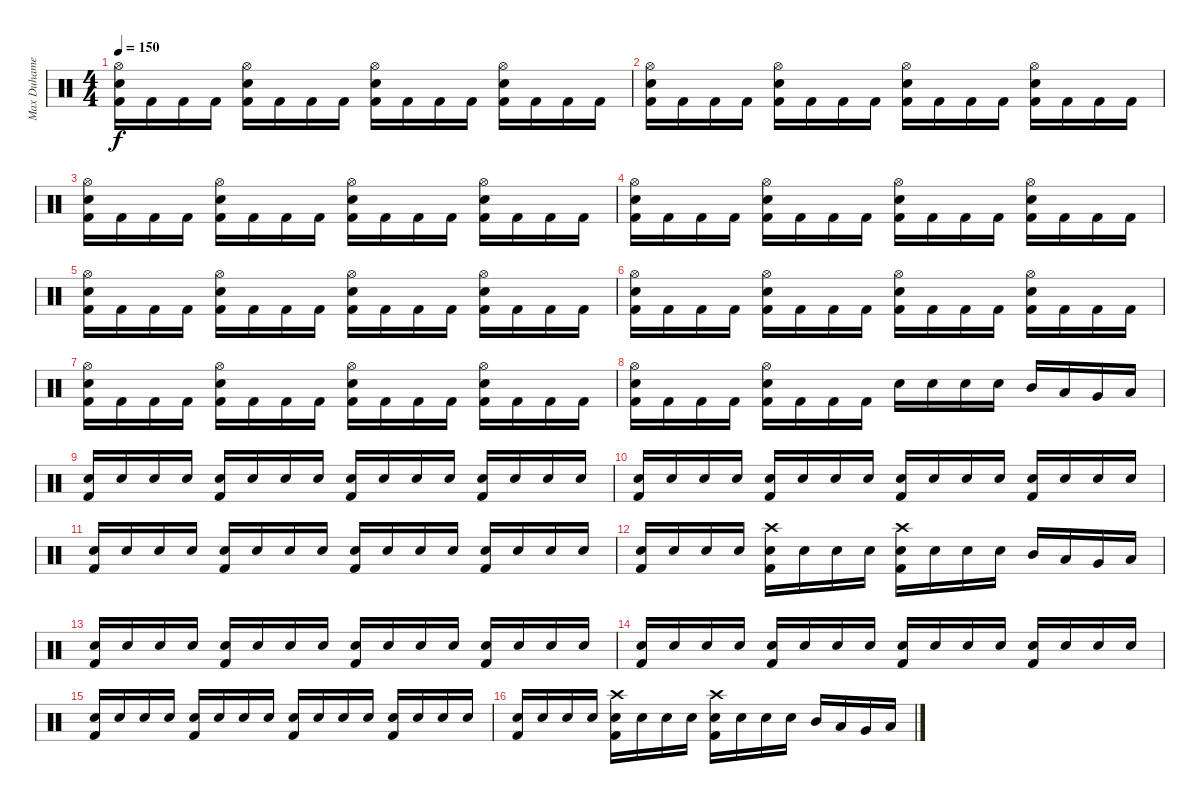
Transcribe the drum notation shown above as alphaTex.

\track ("Max Duhamel (Drums)" "Max Duhame") {instrument percussion}
\staff {score}
\articulation defaults
\ts (4 4)
\tempo 150
\clef neutral
\ks c
("Hi-Hat (open)" "Electric Snare (hit)" "Kick (hit) 2").16{dy f} "Kick (hit) 2".16 "Kick (hit) 2".16 "Kick (hit) 2".16 ("Hi-Hat (open)" "Electric Snare (hit)" "Kick (hit) 2").16 "Kick (hit) 2".16 "Kick (hit) 2".16 "Kick (hit) 2".16 ("Hi-Hat (open)" "Electric Snare (hit)" "Kick (hit) 2").16 "Kick (hit) 2".16 "Kick (hit) 2".16 "Kick (hit) 2".16 ("Hi-Hat (open)" "Electric Snare (hit)" "Kick (hit) 2").16 "Kick (hit) 2".16 "Kick (hit) 2".16 "Kick (hit) 2".16 |
("Hi-Hat (open)" "Electric Snare (hit)" "Kick (hit) 2").16 "Kick (hit) 2".16 "Kick (hit) 2".16 "Kick (hit) 2".16 ("Hi-Hat (open)" "Electric Snare (hit)" "Kick (hit) 2").16 "Kick (hit) 2".16 "Kick (hit) 2".16 "Kick (hit) 2".16 ("Hi-Hat (open)" "Electric Snare (hit)" "Kick (hit) 2").16 "Kick (hit) 2".16 "Kick (hit) 2".16 "Kick (hit) 2".16 ("Hi-Hat (open)" "Electric Snare (hit)" "Kick (hit) 2").16 "Kick (hit) 2".16 "Kick (hit) 2".16 "Kick (hit) 2".16 |
("Hi-Hat (open)" "Electric Snare (hit)" "Kick (hit) 2").16 "Kick (hit) 2".16 "Kick (hit) 2".16 "Kick (hit) 2".16 ("Hi-Hat (open)" "Electric Snare (hit)" "Kick (hit) 2").16 "Kick (hit) 2".16 "Kick (hit) 2".16 "Kick (hit) 2".16 ("Hi-Hat (open)" "Electric Snare (hit)" "Kick (hit) 2").16 "Kick (hit) 2".16 "Kick (hit) 2".16 "Kick (hit) 2".16 ("Hi-Hat (open)" "Electric Snare (hit)" "Kick (hit) 2").16 "Kick (hit) 2".16 "Kick (hit) 2".16 "Kick (hit) 2".16 |
("Hi-Hat (open)" "Electric Snare (hit)" "Kick (hit) 2").16 "Kick (hit) 2".16 "Kick (hit) 2".16 "Kick (hit) 2".16 ("Hi-Hat (open)" "Electric Snare (hit)" "Kick (hit) 2").16 "Kick (hit) 2".16 "Kick (hit) 2".16 "Kick (hit) 2".16 ("Hi-Hat (open)" "Electric Snare (hit)" "Kick (hit) 2").16 "Kick (hit) 2".16 "Kick (hit) 2".16 "Kick (hit) 2".16 ("Hi-Hat (open)" "Electric Snare (hit)" "Kick (hit) 2").16 "Kick (hit) 2".16 "Kick (hit) 2".16 "Kick (hit) 2".16 |
("Hi-Hat (open)" "Electric Snare (hit)" "Kick (hit) 2").16 "Kick (hit) 2".16 "Kick (hit) 2".16 "Kick (hit) 2".16 ("Hi-Hat (open)" "Electric Snare (hit)" "Kick (hit) 2").16 "Kick (hit) 2".16 "Kick (hit) 2".16 "Kick (hit) 2".16 ("Hi-Hat (open)" "Electric Snare (hit)" "Kick (hit) 2").16 "Kick (hit) 2".16 "Kick (hit) 2".16 "Kick (hit) 2".16 ("Hi-Hat (open)" "Electric Snare (hit)" "Kick (hit) 2").16 "Kick (hit) 2".16 "Kick (hit) 2".16 "Kick (hit) 2".16 |
("Hi-Hat (open)" "Electric Snare (hit)" "Kick (hit) 2").16 "Kick (hit) 2".16 "Kick (hit) 2".16 "Kick (hit) 2".16 ("Hi-Hat (open)" "Electric Snare (hit)" "Kick (hit) 2").16 "Kick (hit) 2".16 "Kick (hit) 2".16 "Kick (hit) 2".16 ("Hi-Hat (open)" "Electric Snare (hit)" "Kick (hit) 2").16 "Kick (hit) 2".16 "Kick (hit) 2".16 "Kick (hit) 2".16 ("Hi-Hat (open)" "Electric Snare (hit)" "Kick (hit) 2").16 "Kick (hit) 2".16 "Kick (hit) 2".16 "Kick (hit) 2".16 |
("Hi-Hat (open)" "Electric Snare (hit)" "Kick (hit) 2").16 "Kick (hit) 2".16 "Kick (hit) 2".16 "Kick (hit) 2".16 ("Hi-Hat (open)" "Electric Snare (hit)" "Kick (hit) 2").16 "Kick (hit) 2".16 "Kick (hit) 2".16 "Kick (hit) 2".16 ("Hi-Hat (open)" "Electric Snare (hit)" "Kick (hit) 2").16 "Kick (hit) 2".16 "Kick (hit) 2".16 "Kick (hit) 2".16 ("Hi-Hat (open)" "Electric Snare (hit)" "Kick (hit) 2").16 "Kick (hit) 2".16 "Kick (hit) 2".16 "Kick (hit) 2".16 |
("Hi-Hat (open)" "Electric Snare (hit)" "Kick (hit) 2").16 "Kick (hit) 2".16 "Kick (hit) 2".16 "Kick (hit) 2".16 ("Hi-Hat (open)" "Electric Snare (hit)" "Kick (hit) 2").16 "Kick (hit) 2".16 "Kick (hit) 2".16 "Kick (hit) 2".16 "Electric Snare (hit)".16 "Electric Snare (hit)".16 "Electric Snare (hit)".16 "Electric Snare (hit)".16 "Mid Tom (hit)".16 "Low Tom (hit)".16 "Very Low Tom (hit)".16 "Low Floor Tom (hit)".16 |
("Electric Snare (hit)" "Kick (hit) 2").16 "Electric Snare (hit)".16 "Electric Snare (hit)".16 "Electric Snare (hit)".16 ("Electric Snare (hit)" "Kick (hit) 2").16 "Electric Snare (hit)".16 "Electric Snare (hit)".16 "Electric Snare (hit)".16 ("Electric Snare (hit)" "Kick (hit) 2").16 "Electric Snare (hit)".16 "Electric Snare (hit)".16 "Electric Snare (hit)".16 ("Electric Snare (hit)" "Kick (hit) 2").16 "Electric Snare (hit)".16 "Electric Snare (hit)".16 "Electric Snare (hit)".16 |
("Electric Snare (hit)" "Kick (hit) 2").16 "Electric Snare (hit)".16 "Electric Snare (hit)".16 "Electric Snare (hit)".16 ("Electric Snare (hit)" "Kick (hit) 2").16 "Electric Snare (hit)".16 "Electric Snare (hit)".16 "Electric Snare (hit)".16 ("Electric Snare (hit)" "Kick (hit) 2").16 "Electric Snare (hit)".16 "Electric Snare (hit)".16 "Electric Snare (hit)".16 ("Electric Snare (hit)" "Kick (hit) 2").16 "Electric Snare (hit)".16 "Electric Snare (hit)".16 "Electric Snare (hit)".16 |
("Electric Snare (hit)" "Kick (hit) 2").16 "Electric Snare (hit)".16 "Electric Snare (hit)".16 "Electric Snare (hit)".16 ("Electric Snare (hit)" "Kick (hit) 2").16 "Electric Snare (hit)".16 "Electric Snare (hit)".16 "Electric Snare (hit)".16 ("Electric Snare (hit)" "Kick (hit) 2").16 "Electric Snare (hit)".16 "Electric Snare (hit)".16 "Electric Snare (hit)".16 ("Electric Snare (hit)" "Kick (hit) 2").16 "Electric Snare (hit)".16 "Electric Snare (hit)".16 "Electric Snare (hit)".16 |
("Electric Snare (hit)" "Kick (hit) 2").16 "Electric Snare (hit)".16 "Electric Snare (hit)".16 "Electric Snare (hit)".16 ("Crash high (hit)" "Electric Snare (hit)" "Kick (hit) 2").16 "Electric Snare (hit)".16 "Electric Snare (hit)".16 "Electric Snare (hit)".16 ("Crash high (hit)" "Electric Snare (hit)" "Kick (hit) 2").16 "Electric Snare (hit)".16 "Electric Snare (hit)".16 "Electric Snare (hit)".16 "Mid Tom (hit)".16 "Low Tom (hit)".16 "Very Low Tom (hit)".16 "Low Floor Tom (hit)".16 |
("Electric Snare (hit)" "Kick (hit) 2").16 "Electric Snare (hit)".16 "Electric Snare (hit)".16 "Electric Snare (hit)".16 ("Electric Snare (hit)" "Kick (hit) 2").16 "Electric Snare (hit)".16 "Electric Snare (hit)".16 "Electric Snare (hit)".16 ("Electric Snare (hit)" "Kick (hit) 2").16 "Electric Snare (hit)".16 "Electric Snare (hit)".16 "Electric Snare (hit)".16 ("Electric Snare (hit)" "Kick (hit) 2").16 "Electric Snare (hit)".16 "Electric Snare (hit)".16 "Electric Snare (hit)".16 |
("Electric Snare (hit)" "Kick (hit) 2").16 "Electric Snare (hit)".16 "Electric Snare (hit)".16 "Electric Snare (hit)".16 ("Electric Snare (hit)" "Kick (hit) 2").16 "Electric Snare (hit)".16 "Electric Snare (hit)".16 "Electric Snare (hit)".16 ("Electric Snare (hit)" "Kick (hit) 2").16 "Electric Snare (hit)".16 "Electric Snare (hit)".16 "Electric Snare (hit)".16 ("Electric Snare (hit)" "Kick (hit) 2").16 "Electric Snare (hit)".16 "Electric Snare (hit)".16 "Electric Snare (hit)".16 |
("Electric Snare (hit)" "Kick (hit) 2").16 "Electric Snare (hit)".16 "Electric Snare (hit)".16 "Electric Snare (hit)".16 ("Electric Snare (hit)" "Kick (hit) 2").16 "Electric Snare (hit)".16 "Electric Snare (hit)".16 "Electric Snare (hit)".16 ("Electric Snare (hit)" "Kick (hit) 2").16 "Electric Snare (hit)".16 "Electric Snare (hit)".16 "Electric Snare (hit)".16 ("Electric Snare (hit)" "Kick (hit) 2").16 "Electric Snare (hit)".16 "Electric Snare (hit)".16 "Electric Snare (hit)".16 |
("Electric Snare (hit)" "Kick (hit) 2").16 "Electric Snare (hit)".16 "Electric Snare (hit)".16 "Electric Snare (hit)".16 ("Crash high (hit)" "Electric Snare (hit)" "Kick (hit) 2").16 "Electric Snare (hit)".16 "Electric Snare (hit)".16 "Electric Snare (hit)".16 ("Crash high (hit)" "Electric Snare (hit)" "Kick (hit) 2").16 "Electric Snare (hit)".16 "Electric Snare (hit)".16 "Electric Snare (hit)".16 "Mid Tom (hit)".16 "Low Tom (hit)".16 "Very Low Tom (hit)".16 "Low Floor Tom (hit)".16
